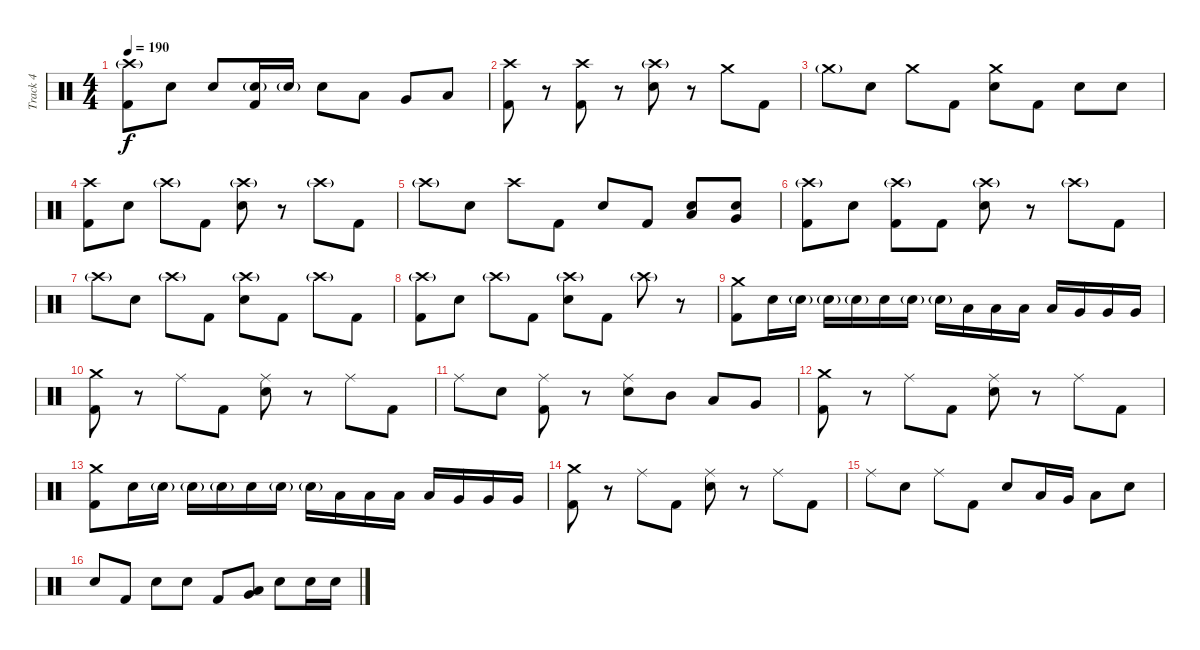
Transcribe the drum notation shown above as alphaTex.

\track ("Track 4" "Track 4") {instrument percussion}
\staff {score}
\articulation defaults
\ts (4 4)
\tempo 190
\clef neutral
\ks c
("Crash high (hit)"{g} "Kick (hit) 2").8{dy f} "Electric Snare (hit)".8 "Electric Snare (hit)".8 ("Electric Snare (hit)"{g} "Kick (hit) 2").16 "Electric Snare (hit)"{g}.16 "Electric Snare (hit)".8 "Low Tom (hit)".8 "Very Low Tom (hit)".8 "Low Floor Tom (hit)".8 |
("Crash high (hit)" "Kick (hit) 2").8 r.8 ("Crash high (hit)" "Kick (hit) 2").8 r.8 ("Crash high (hit)"{g} "Electric Snare (hit)").8 r.8 "Crash medium (hit)".8 "Kick (hit) 2".8 |
"Crash medium (hit)"{g}.8 "Electric Snare (hit)".8 "Crash medium (hit)".8 "Kick (hit) 2".8 ("Crash medium (hit)" "Electric Snare (hit)").8 "Kick (hit) 2".8 "Electric Snare (hit)".8 "Electric Snare (hit)".8 |
("Crash high (hit)" "Kick (hit) 2").8 "Electric Snare (hit)".8 "Crash high (hit)"{g}.8 "Kick (hit) 2".8 ("Crash high (hit)"{g} "Electric Snare (hit)").8 r.8 "Crash high (hit)"{g}.8 "Kick (hit) 2".8 |
"Crash high (hit)"{g}.8 "Electric Snare (hit)".8 "Crash high (hit)".8 "Kick (hit) 2".8 "Electric Snare (hit)".8 "Kick (hit) 2".8 ("Low Tom (hit)" "Electric Snare (hit)").8 ("Very Low Tom (hit)" "Electric Snare (hit)").8 |
("Crash high (hit)"{g} "Kick (hit) 2").8 "Electric Snare (hit)".8 ("Crash high (hit)"{g} "Kick (hit) 2").8 "Kick (hit) 2".8 ("Crash high (hit)"{g} "Electric Snare (hit)").8 r.8 "Crash high (hit)"{g}.8 "Kick (hit) 2".8 |
"Crash high (hit)"{g}.8 "Electric Snare (hit)".8 "Crash high (hit)"{g}.8 "Kick (hit) 2".8 ("Crash high (hit)"{g} "Electric Snare (hit)").8 "Kick (hit) 2".8 "Crash high (hit)"{g}.8 "Kick (hit) 2".8 |
("Crash high (hit)"{g} "Kick (hit) 2").8 "Electric Snare (hit)".8 "Crash high (hit)"{g}.8 "Kick (hit) 2".8 ("Crash high (hit)"{g} "Electric Snare (hit)").8 "Kick (hit) 2".8 "Crash high (hit)"{g}.8 r.8 |
("Crash medium (hit)" "Kick (hit) 2").8 "Electric Snare (hit)".16 "Electric Snare (hit)"{g}.16 "Electric Snare (hit)"{g}.16 "Electric Snare (hit)"{g}.16 "Electric Snare (hit)".16 "Electric Snare (hit)"{g}.16 "Electric Snare (hit)"{g}.16 "Low Tom (hit)".16 "Low Tom (hit)".16 "Low Tom (hit)".16 "Low Tom (hit)".16 "Very Low Tom (hit)".16 "Very Low Tom (hit)".16 "Very Low Tom (hit)".16 |
("Crash medium (hit)" "Kick (hit) 2").8 r.8 "Ride (middle)".8 "Kick (hit) 2".8 ("Ride (middle)" "Electric Snare (hit)").8 r.8 "Ride (middle)".8 "Kick (hit) 2".8 |
"Ride (middle)".8 "Electric Snare (hit)".8 ("Ride (middle)" "Kick (hit) 2").8 r.8 ("Ride (middle)" "Electric Snare (hit)").8 "Mid Tom (hit)".8 "Low Tom (hit)".8 "Very Low Tom (hit)".8 |
("Crash medium (hit)" "Kick (hit) 2").8 r.8 "Ride (middle)".8 "Kick (hit) 2".8 ("Ride (middle)" "Electric Snare (hit)").8 r.8 "Ride (middle)".8 "Kick (hit) 2".8 |
("Crash medium (hit)" "Kick (hit) 2").8 "Electric Snare (hit)".16 "Electric Snare (hit)"{g}.16 "Electric Snare (hit)"{g}.16 "Electric Snare (hit)"{g}.16 "Electric Snare (hit)".16 "Electric Snare (hit)"{g}.16 "Electric Snare (hit)"{g}.16 "Low Tom (hit)".16 "Low Tom (hit)".16 "Low Tom (hit)".16 "Low Tom (hit)".16 "Very Low Tom (hit)".16 "Very Low Tom (hit)".16 "Very Low Tom (hit)".16 |
("Crash medium (hit)" "Kick (hit) 2").8 r.8 "Ride (middle)".8 "Kick (hit) 2".8 ("Ride (middle)" "Electric Snare (hit)").8 r.8 "Ride (middle)".8 "Kick (hit) 2".8 |
"Ride (middle)".8 "Electric Snare (hit)".8 "Ride (middle)".8 "Kick (hit) 2".8 "Electric Snare (hit)".8 "Low Tom (hit)".16 "Very Low Tom (hit)".16 "Low Floor Tom (hit)".8 "Electric Snare (hit)".8 |
"Electric Snare (hit)".8 "Kick (hit) 2".8 "Electric Snare (hit)".8 "Electric Snare (hit)".8 "Kick (hit) 2".8 ("Low Tom (hit)" "Very Low Tom (hit)").8 "Electric Snare (hit)".8 "Electric Snare (hit)".16 "Electric Snare (hit)".16
